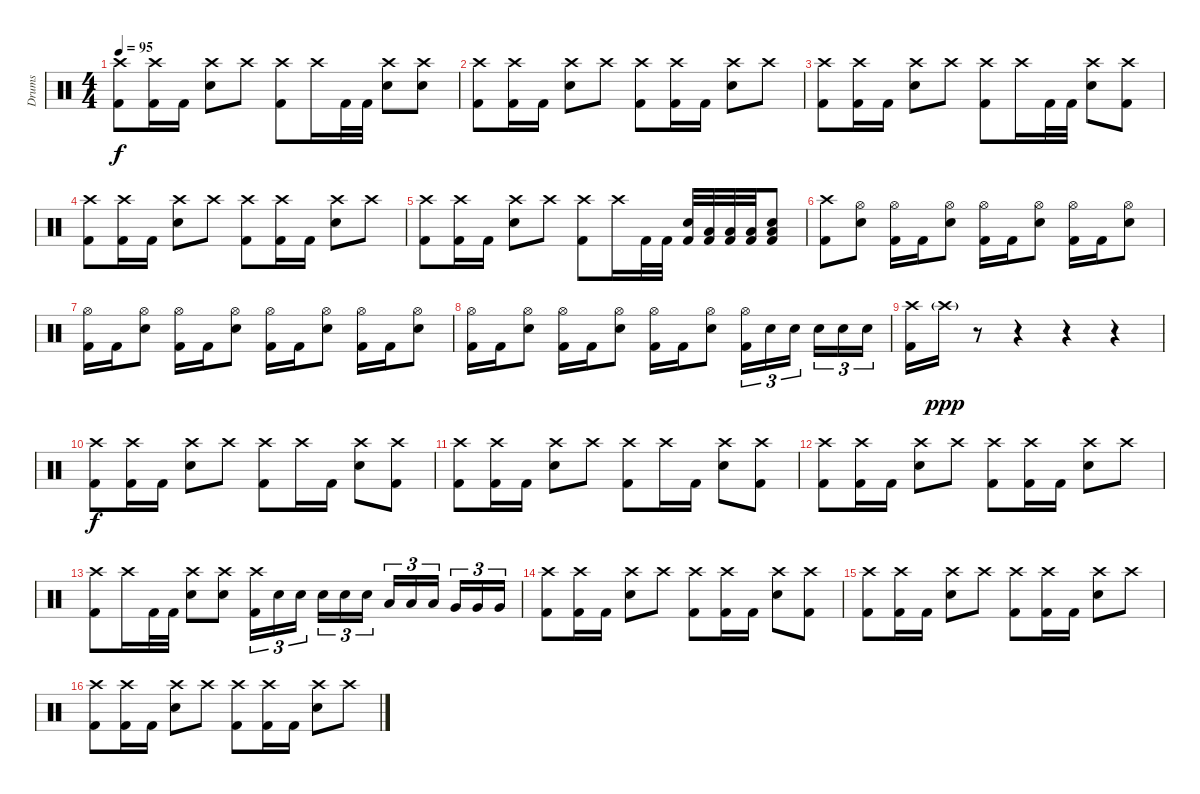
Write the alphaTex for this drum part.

\track ("Drums" "Drums") {instrument percussion}
\staff {score}
\articulation defaults
\ts (4 4)
\tempo 95
\clef neutral
\ks c
("Crash high (hit)" "Kick (hit) 2").8{dy f} ("Crash high (hit)" "Kick (hit) 2").16 "Kick (hit) 2".16 ("Crash high (hit)" "Snare (hit) 2").8 "Crash high (hit)".8 ("Crash high (hit)" "Kick (hit) 2").8 "Crash high (hit)".16 "Kick (hit) 2".32 "Kick (hit) 2".32 ("Crash high (hit)" "Snare (hit) 2").8 ("Crash high (hit)" "Snare (hit) 2").8 |
("Crash high (hit)" "Kick (hit) 2").8 ("Crash high (hit)" "Kick (hit) 2").16 "Kick (hit) 2".16 ("Crash high (hit)" "Snare (hit) 2").8 "Crash high (hit)".8 ("Crash high (hit)" "Kick (hit) 2").8 ("Crash high (hit)" "Kick (hit) 2").16 "Kick (hit) 2".16 ("Crash high (hit)" "Snare (hit) 2").8 "Crash high (hit)".8 |
("Crash high (hit)" "Kick (hit) 2").8 ("Crash high (hit)" "Kick (hit) 2").16 "Kick (hit) 2".16 ("Crash high (hit)" "Snare (hit) 2").8 "Crash high (hit)".8 ("Crash high (hit)" "Kick (hit) 2").8 "Crash high (hit)".16 "Kick (hit) 2".32 "Kick (hit) 2".32 ("Crash high (hit)" "Snare (hit) 2").8 ("Crash high (hit)" "Kick (hit) 2").8 |
("Crash high (hit)" "Kick (hit) 2").8 ("Crash high (hit)" "Kick (hit) 2").16 "Kick (hit) 2".16 ("Crash high (hit)" "Snare (hit) 2").8 "Crash high (hit)".8 ("Crash high (hit)" "Kick (hit) 2").8 ("Crash high (hit)" "Kick (hit) 2").16 "Kick (hit) 2".16 ("Crash high (hit)" "Snare (hit) 2").8 "Crash high (hit)".8 |
("Crash high (hit)" "Kick (hit) 2").8 ("Crash high (hit)" "Kick (hit) 2").16 "Kick (hit) 2".16 ("Crash high (hit)" "Snare (hit) 2").8 "Crash high (hit)".8 ("Crash high (hit)" "Kick (hit) 2").8 "Crash high (hit)".16 "Kick (hit) 2".32 "Kick (hit) 2".32 ("Snare (hit) 2" "Kick (hit) 2").32 ("Low Tom (hit)" "Kick (hit) 2").32 ("Low Tom (hit)" "Kick (hit) 2").32 ("Low Tom (hit)" "Kick (hit) 2").32 ("Low Tom (hit)" "Snare (hit) 2" "Kick (hit) 2").8 |
("Crash high (hit)" "Kick (hit) 2").8 ("Hi-Hat (open)" "Snare (hit) 2").8 ("Hi-Hat (open)" "Kick (hit) 2").16 "Kick (hit) 2".16 ("Hi-Hat (open)" "Snare (hit) 2").8 ("Hi-Hat (open)" "Kick (hit) 2").16 "Kick (hit) 2".16 ("Hi-Hat (open)" "Snare (hit) 2").8 ("Hi-Hat (open)" "Kick (hit) 2").16 "Kick (hit) 2".16 ("Hi-Hat (open)" "Snare (hit) 2").8 |
("Hi-Hat (open)" "Kick (hit) 2").16 "Kick (hit) 2".16 ("Hi-Hat (open)" "Snare (hit) 2").8 ("Hi-Hat (open)" "Kick (hit) 2").16 "Kick (hit) 2".16 ("Hi-Hat (open)" "Snare (hit) 2").8 ("Hi-Hat (open)" "Kick (hit) 2").16 "Kick (hit) 2".16 ("Hi-Hat (open)" "Snare (hit) 2").8 ("Hi-Hat (open)" "Kick (hit) 2").16 "Kick (hit) 2".16 ("Hi-Hat (open)" "Snare (hit) 2").8 |
("Hi-Hat (open)" "Kick (hit) 2").16 "Kick (hit) 2".16 ("Hi-Hat (open)" "Snare (hit) 2").8 ("Hi-Hat (open)" "Kick (hit) 2").16 "Kick (hit) 2".16 ("Hi-Hat (open)" "Snare (hit) 2").8 ("Hi-Hat (open)" "Kick (hit) 2").16 "Kick (hit) 2".16 ("Hi-Hat (open)" "Snare (hit) 2").8 ("Hi-Hat (open)" "Kick (hit) 2").16{tu (3 2)} "Snare (hit) 2".16{tu (3 2)} "Snare (hit) 2".16{tu (3 2) beam splitsecondary} "Snare (hit) 2".16{tu (3 2)} "Snare (hit) 2".16{tu (3 2)} "Snare (hit) 2".16{tu (3 2)} |
("Crash high (hit)" "Kick (hit) 2").16 "Crash high (hit)"{g}.16{dy ppp} r.8 r.4 r.4 r.4 |
("Crash high (hit)" "Kick (hit) 2").8{dy f} ("Crash high (hit)" "Kick (hit) 2").16 "Kick (hit) 2".16 ("Crash high (hit)" "Snare (hit) 2").8 "Crash high (hit)".8 ("Crash high (hit)" "Kick (hit) 2").8 "Crash high (hit)".16 "Kick (hit) 2".16 ("Crash high (hit)" "Snare (hit) 2").8 ("Crash high (hit)" "Kick (hit) 2").8 |
("Crash high (hit)" "Kick (hit) 2").8 ("Crash high (hit)" "Kick (hit) 2").16 "Kick (hit) 2".16 ("Crash high (hit)" "Snare (hit) 2").8 "Crash high (hit)".8 ("Crash high (hit)" "Kick (hit) 2").8 "Crash high (hit)".16 "Kick (hit) 2".16 ("Crash high (hit)" "Snare (hit) 2").8 ("Crash high (hit)" "Kick (hit) 2").8 |
("Crash high (hit)" "Kick (hit) 2").8 ("Crash high (hit)" "Kick (hit) 2").16 "Kick (hit) 2".16 ("Crash high (hit)" "Snare (hit) 2").8 "Crash high (hit)".8 ("Crash high (hit)" "Kick (hit) 2").8 ("Crash high (hit)" "Kick (hit) 2").16 "Kick (hit) 2".16 ("Crash high (hit)" "Snare (hit) 2").8 "Crash high (hit)".8 |
("Crash high (hit)" "Kick (hit) 2").8 "Crash high (hit)".16 "Kick (hit) 2".32 "Kick (hit) 2".32 ("Crash high (hit)" "Snare (hit) 2").8 ("Crash high (hit)" "Snare (hit) 2").8 ("Crash high (hit)" "Kick (hit) 2").16{tu (3 2)} "Snare (hit) 2".16{tu (3 2)} "Snare (hit) 2".16{tu (3 2) beam splitsecondary} "Snare (hit) 2".16{tu (3 2)} "Snare (hit) 2".16{tu (3 2)} "Snare (hit) 2".16{tu (3 2)} "Low Tom (hit)".16{tu (3 2)} "Low Tom (hit)".16{tu (3 2)} "Low Tom (hit)".16{tu (3 2) beam splitsecondary} "Very Low Tom (hit)".16{tu (3 2)} "Very Low Tom (hit)".16{tu (3 2)} "Very Low Tom (hit)".16{tu (3 2)} |
("Crash high (hit)" "Kick (hit) 2").8 ("Crash high (hit)" "Kick (hit) 2").16 "Kick (hit) 2".16 ("Crash high (hit)" "Snare (hit) 2").8 "Crash high (hit)".8 ("Crash high (hit)" "Kick (hit) 2").8 ("Crash high (hit)" "Kick (hit) 2").16 "Kick (hit) 2".16 ("Crash high (hit)" "Snare (hit) 2").8 ("Crash high (hit)" "Kick (hit) 2").8 |
("Crash high (hit)" "Kick (hit) 2").8 ("Crash high (hit)" "Kick (hit) 2").16 "Kick (hit) 2".16 ("Crash high (hit)" "Snare (hit) 2").8 "Crash high (hit)".8 ("Crash high (hit)" "Kick (hit) 2").8 ("Crash high (hit)" "Kick (hit) 2").16 "Kick (hit) 2".16 ("Crash high (hit)" "Snare (hit) 2").8 "Crash high (hit)".8 |
("Crash high (hit)" "Kick (hit) 2").8 ("Crash high (hit)" "Kick (hit) 2").16 "Kick (hit) 2".16 ("Crash high (hit)" "Snare (hit) 2").8 "Crash high (hit)".8 ("Crash high (hit)" "Kick (hit) 2").8 ("Crash high (hit)" "Kick (hit) 2").16 "Kick (hit) 2".16 ("Crash high (hit)" "Snare (hit) 2").8 "Crash high (hit)".8
